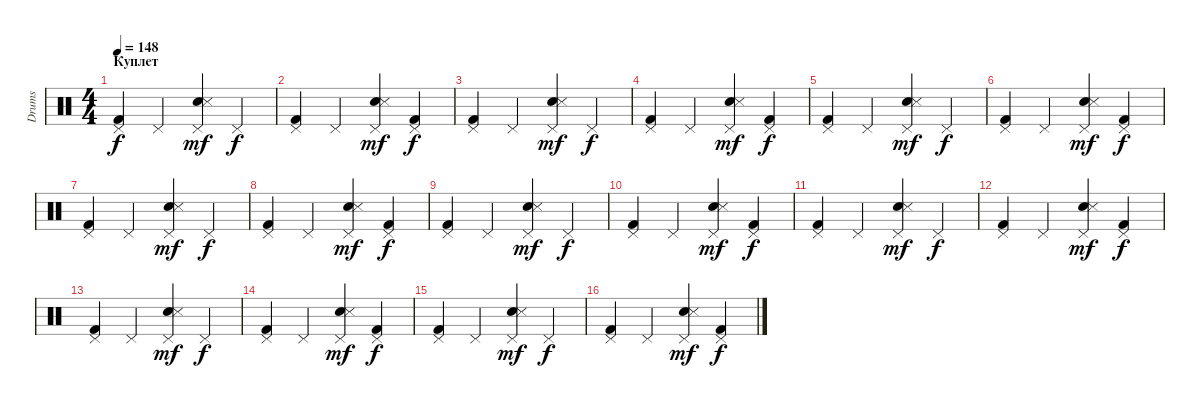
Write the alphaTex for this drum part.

\track ("Drums" "Drums") {instrument percussion}
\staff {score}
\articulation defaults
\ts (4 4)
\section ("" "Куплет")
\tempo 148
\clef neutral
\ks c
("Pedal Hi-Hat (hit)" "Kick (hit) 2").4{dy f} "Pedal Hi-Hat (hit)".4 ("Pedal Hi-Hat (hit)" "Snare (hit) 2" "Snare (side stick) 3").4{dy mf} "Pedal Hi-Hat (hit)".4{dy f} |
("Pedal Hi-Hat (hit)" "Kick (hit) 2").4 "Pedal Hi-Hat (hit)".4 ("Pedal Hi-Hat (hit)" "Snare (hit) 2" "Snare (side stick) 3").4{dy mf} ("Pedal Hi-Hat (hit)" "Kick (hit) 2").4{dy f} |
("Pedal Hi-Hat (hit)" "Kick (hit) 2").4 "Pedal Hi-Hat (hit)".4 ("Pedal Hi-Hat (hit)" "Snare (hit) 2" "Snare (side stick) 3").4{dy mf} "Pedal Hi-Hat (hit)".4{dy f} |
("Pedal Hi-Hat (hit)" "Kick (hit) 2").4 "Pedal Hi-Hat (hit)".4 ("Pedal Hi-Hat (hit)" "Snare (hit) 2" "Snare (side stick) 3").4{dy mf} ("Pedal Hi-Hat (hit)" "Kick (hit) 2").4{dy f} |
("Pedal Hi-Hat (hit)" "Kick (hit) 2").4 "Pedal Hi-Hat (hit)".4 ("Pedal Hi-Hat (hit)" "Snare (hit) 2" "Snare (side stick) 3").4{dy mf} "Pedal Hi-Hat (hit)".4{dy f} |
("Pedal Hi-Hat (hit)" "Kick (hit) 2").4 "Pedal Hi-Hat (hit)".4 ("Pedal Hi-Hat (hit)" "Snare (hit) 2" "Snare (side stick) 3").4{dy mf} ("Pedal Hi-Hat (hit)" "Kick (hit) 2").4{dy f} |
("Pedal Hi-Hat (hit)" "Kick (hit) 2").4 "Pedal Hi-Hat (hit)".4 ("Pedal Hi-Hat (hit)" "Snare (hit) 2" "Snare (side stick) 3").4{dy mf} "Pedal Hi-Hat (hit)".4{dy f} |
("Pedal Hi-Hat (hit)" "Kick (hit) 2").4 "Pedal Hi-Hat (hit)".4 ("Pedal Hi-Hat (hit)" "Snare (hit) 2" "Snare (side stick) 3").4{dy mf} ("Pedal Hi-Hat (hit)" "Kick (hit) 2").4{dy f} |
("Pedal Hi-Hat (hit)" "Kick (hit) 2").4 "Pedal Hi-Hat (hit)".4 ("Pedal Hi-Hat (hit)" "Snare (hit) 2" "Snare (side stick) 3").4{dy mf} "Pedal Hi-Hat (hit)".4{dy f} |
("Pedal Hi-Hat (hit)" "Kick (hit) 2").4 "Pedal Hi-Hat (hit)".4 ("Pedal Hi-Hat (hit)" "Snare (hit) 2" "Snare (side stick) 3").4{dy mf} ("Pedal Hi-Hat (hit)" "Kick (hit) 2").4{dy f} |
("Pedal Hi-Hat (hit)" "Kick (hit) 2").4 "Pedal Hi-Hat (hit)".4 ("Pedal Hi-Hat (hit)" "Snare (hit) 2" "Snare (side stick) 3").4{dy mf} "Pedal Hi-Hat (hit)".4{dy f} |
("Pedal Hi-Hat (hit)" "Kick (hit) 2").4 "Pedal Hi-Hat (hit)".4 ("Pedal Hi-Hat (hit)" "Snare (hit) 2" "Snare (side stick) 3").4{dy mf} ("Pedal Hi-Hat (hit)" "Kick (hit) 2").4{dy f} |
("Pedal Hi-Hat (hit)" "Kick (hit) 2").4 "Pedal Hi-Hat (hit)".4 ("Pedal Hi-Hat (hit)" "Snare (hit) 2" "Snare (side stick) 3").4{dy mf} "Pedal Hi-Hat (hit)".4{dy f} |
("Pedal Hi-Hat (hit)" "Kick (hit) 2").4 "Pedal Hi-Hat (hit)".4 ("Pedal Hi-Hat (hit)" "Snare (hit) 2" "Snare (side stick) 3").4{dy mf} ("Pedal Hi-Hat (hit)" "Kick (hit) 2").4{dy f} |
("Pedal Hi-Hat (hit)" "Kick (hit) 2").4 "Pedal Hi-Hat (hit)".4 ("Pedal Hi-Hat (hit)" "Snare (hit) 2" "Snare (side stick) 3").4{dy mf} "Pedal Hi-Hat (hit)".4{dy f} |
("Pedal Hi-Hat (hit)" "Kick (hit) 2").4 "Pedal Hi-Hat (hit)".4 ("Pedal Hi-Hat (hit)" "Snare (hit) 2" "Snare (side stick) 3").4{dy mf} ("Pedal Hi-Hat (hit)" "Kick (hit) 2").4{dy f}
